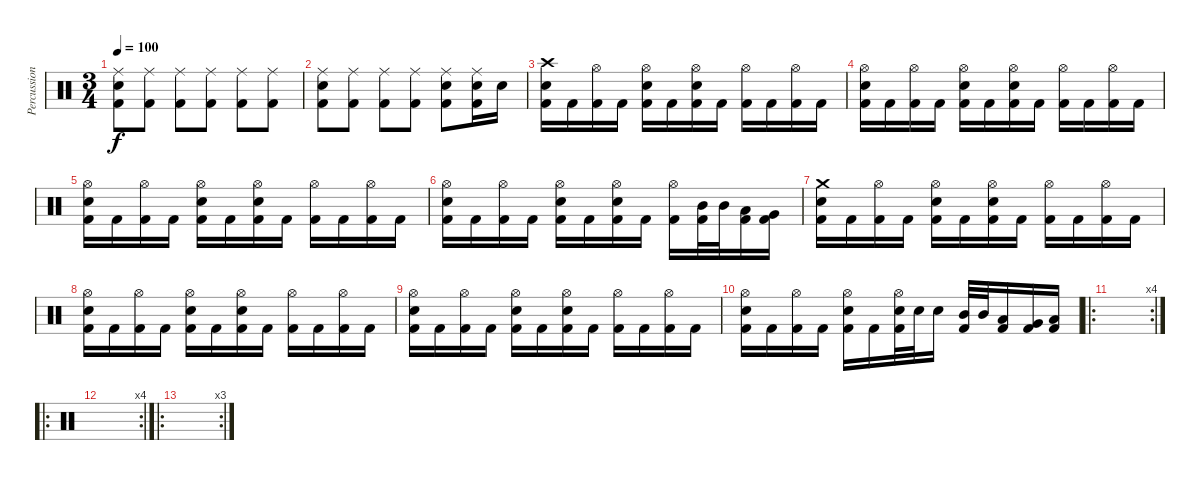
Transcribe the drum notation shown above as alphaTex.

\track ("Percussion" "Percussion") {instrument percussion}
\staff {score}
\articulation defaults
\ts (3 4)
\tempo 100
\clef neutral
\ks c
("Ride (middle)" "Snare (hit) 2" "Kick (hit) 2").8{dy f} ("Ride (middle)" "Kick (hit) 2").8 ("Ride (middle)" "Kick (hit) 2").8 ("Ride (middle)" "Kick (hit) 2").8 ("Ride (middle)" "Kick (hit) 2").8 ("Ride (middle)" "Kick (hit) 2").8 |
("Ride (middle)" "Snare (hit) 2" "Kick (hit) 2").8 ("Ride (middle)" "Kick (hit) 2").8 ("Ride (middle)" "Kick (hit) 2").8 ("Ride (middle)" "Kick (hit) 2").8 ("Ride (middle)" "Snare (hit) 2" "Kick (hit) 2").8 ("Ride (middle)" "Snare (hit) 2" "Kick (hit) 2").16 "Snare (hit) 2".16 |
("Crash high (hit)" "Snare (hit) 2" "Kick (hit) 2").16 "Kick (hit) 2".16 ("Hi-Hat (open)" "Kick (hit) 2").16 "Kick (hit) 2".16 ("Hi-Hat (open)" "Snare (hit) 2" "Kick (hit) 2").16 "Kick (hit) 2".16 ("Hi-Hat (open)" "Snare (hit) 2" "Kick (hit) 2").16 "Kick (hit) 2".16 ("Hi-Hat (open)" "Kick (hit) 2").16 "Kick (hit) 2".16 ("Hi-Hat (open)" "Kick (hit) 2").16 "Kick (hit) 2".16 |
("Hi-Hat (open)" "Snare (hit) 2" "Kick (hit) 2").16 "Kick (hit) 2".16 ("Hi-Hat (open)" "Kick (hit) 2").16 "Kick (hit) 2".16 ("Hi-Hat (open)" "Snare (hit) 2" "Kick (hit) 2").16 "Kick (hit) 2".16 ("Hi-Hat (open)" "Snare (hit) 2" "Kick (hit) 2").16 "Kick (hit) 2".16 ("Hi-Hat (open)" "Kick (hit) 2").16 "Kick (hit) 2".16 ("Hi-Hat (open)" "Kick (hit) 2").16 "Kick (hit) 2".16 |
("Hi-Hat (open)" "Snare (hit) 2" "Kick (hit) 2").16{volume 0} "Kick (hit) 2".16 ("Hi-Hat (open)" "Kick (hit) 2").16 "Kick (hit) 2".16 ("Hi-Hat (open)" "Snare (hit) 2" "Kick (hit) 2").16 "Kick (hit) 2".16 ("Hi-Hat (open)" "Snare (hit) 2" "Kick (hit) 2").16 "Kick (hit) 2".16 ("Hi-Hat (open)" "Kick (hit) 2").16 "Kick (hit) 2".16 ("Hi-Hat (open)" "Kick (hit) 2").16 "Kick (hit) 2".16 |
("Hi-Hat (open)" "Snare (hit) 2" "Kick (hit) 2").16 "Kick (hit) 2".16 ("Hi-Hat (open)" "Kick (hit) 2").16 "Kick (hit) 2".16 ("Hi-Hat (open)" "Snare (hit) 2" "Kick (hit) 2").16 "Kick (hit) 2".16 ("Hi-Hat (open)" "Snare (hit) 2" "Kick (hit) 2").16 "Kick (hit) 2".16 ("Hi-Hat (open)" "Kick (hit) 2").16 ("Mid Tom (hit)" "Kick (hit) 2").32 "Mid Tom (hit)".32 ("Low Tom (hit)" "Kick (hit) 2").16 ("Very Low Tom (hit)" "Kick (hit) 2").16 |
("Crash medium (hit)" "Snare (hit) 2" "Kick (hit) 2").16 "Kick (hit) 2".16 ("Hi-Hat (open)" "Kick (hit) 2").16 "Kick (hit) 2".16 ("Hi-Hat (open)" "Snare (hit) 2" "Kick (hit) 2").16 "Kick (hit) 2".16 ("Hi-Hat (open)" "Snare (hit) 2" "Kick (hit) 2").16 "Kick (hit) 2".16 ("Hi-Hat (open)" "Kick (hit) 2").16 "Kick (hit) 2".16 ("Hi-Hat (open)" "Kick (hit) 2").16 "Kick (hit) 2".16 |
("Hi-Hat (open)" "Snare (hit) 2" "Kick (hit) 2").16 "Kick (hit) 2".16 ("Hi-Hat (open)" "Kick (hit) 2").16 "Kick (hit) 2".16 ("Hi-Hat (open)" "Snare (hit) 2" "Kick (hit) 2").16 "Kick (hit) 2".16 ("Hi-Hat (open)" "Snare (hit) 2" "Kick (hit) 2").16 "Kick (hit) 2".16 ("Hi-Hat (open)" "Kick (hit) 2").16 "Kick (hit) 2".16 ("Hi-Hat (open)" "Kick (hit) 2").16 "Kick (hit) 2".16 |
("Hi-Hat (open)" "Snare (hit) 2" "Kick (hit) 2").16 "Kick (hit) 2".16 ("Hi-Hat (open)" "Kick (hit) 2").16 "Kick (hit) 2".16 ("Hi-Hat (open)" "Snare (hit) 2" "Kick (hit) 2").16 "Kick (hit) 2".16 ("Hi-Hat (open)" "Snare (hit) 2" "Kick (hit) 2").16 "Kick (hit) 2".16 ("Hi-Hat (open)" "Kick (hit) 2").16 "Kick (hit) 2".16 ("Hi-Hat (open)" "Kick (hit) 2").16 "Kick (hit) 2".16 |
("Hi-Hat (open)" "Snare (hit) 2" "Kick (hit) 2").16 "Kick (hit) 2".16 ("Hi-Hat (open)" "Kick (hit) 2").16 "Kick (hit) 2".16 ("Hi-Hat (open)" "Snare (hit) 2" "Kick (hit) 2").16 "Kick (hit) 2".16 ("Hi-Hat (open)" "Snare (hit) 2" "Kick (hit) 2").32 "Snare (hit) 2".32 "Snare (hit) 2".16 ("Mid Tom (hit)" "Kick (hit) 2").32 "Mid Tom (hit)".32 ("Low Tom (hit)" "Kick (hit) 2").16 ("Very Low Tom (hit)" "Kick (hit) 2").16 ("Low Floor Tom (hit)" "Kick (hit) 2").16 |
\ro
\rc 4
|
\ro
\rc 4
|
\ro
\rc 3
